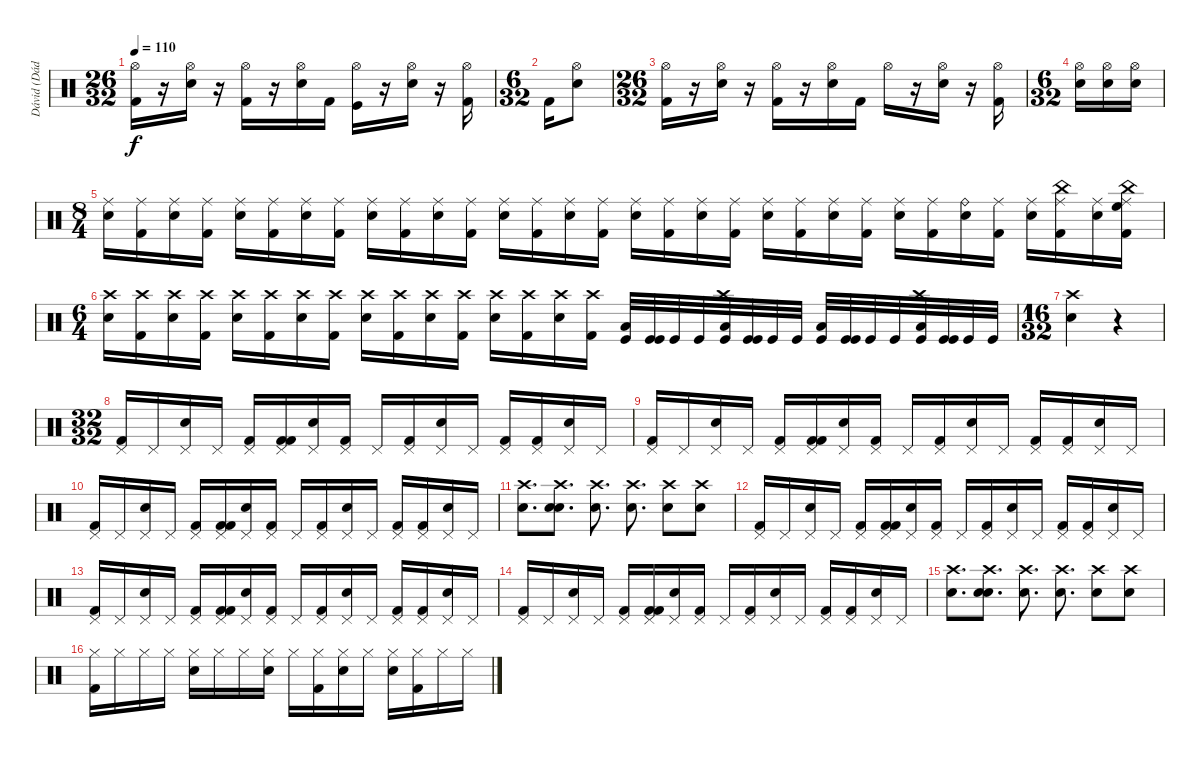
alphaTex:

\track ("Dávid (Dádi)" "Dávid (Dád") {instrument percussion}
\staff {score}
\articulation defaults
\ts (26 32)
\tempo 110
\clef neutral
\ks c
("Kick (hit) 2" "Hi-Hat (open)").16{dy f} r.16 ("Electric Snare (hit)" "Hi-Hat (open)").16 r.16 ("Kick (hit) 2" "Hi-Hat (open)").16 r.16 ("Electric Snare (hit)" "Hi-Hat (open)").16 "Kick (hit) 2".16 ("Hi-Hat (open)" "Kick (hit)").16 r.16 ("Electric Snare (hit)" "Hi-Hat (open)").16 r.16 ("Kick (hit) 2" "Hi-Hat (open)").16 |
\ts (6 32)
"Kick (hit) 2".16 ("Hi-Hat (open)" "Electric Snare (hit)").8 |
\ts (26 32)
("Kick (hit) 2" "Hi-Hat (open)").16 r.16 ("Electric Snare (hit)" "Hi-Hat (open)").16 r.16 ("Kick (hit) 2" "Hi-Hat (open)").16 r.16 ("Electric Snare (hit)" "Hi-Hat (open)").16 "Kick (hit) 2".16 "Hi-Hat (open)".16 r.16 ("Electric Snare (hit)" "Hi-Hat (open)").16 r.16 ("Kick (hit) 2" "Hi-Hat (open)").16 |
\ts (6 32)
("Electric Snare (hit)" "Hi-Hat (open)").16 ("Electric Snare (hit)" "Hi-Hat (open)").16 ("Hi-Hat (open)" "Electric Snare (hit)").16 |
\ts (8 4)
("Ride (middle)" "Electric Snare (hit)").16 ("Ride (middle)" "Kick (hit) 2").16 ("Ride (middle)" "Electric Snare (hit)").16 ("Ride (middle)" "Kick (hit) 2").16 ("Ride (middle)" "Electric Snare (hit)").16 ("Ride (middle)" "Kick (hit) 2").16 ("Ride (middle)" "Electric Snare (hit)").16 ("Ride (middle)" "Kick (hit) 2").16 ("Ride (middle)" "Electric Snare (hit)").16 ("Ride (middle)" "Kick (hit) 2").16 ("Ride (middle)" "Electric Snare (hit)").16 ("Ride (middle)" "Kick (hit) 2").16 ("Ride (middle)" "Electric Snare (hit)").16 ("Ride (middle)" "Kick (hit) 2").16 ("Ride (middle)" "Electric Snare (hit)").16 ("Ride (middle)" "Kick (hit) 2").16 ("Ride (middle)" "Electric Snare (hit)").16 ("Ride (middle)" "Kick (hit) 2").16 ("Ride (middle)" "Electric Snare (hit)").16 ("Ride (middle)" "Kick (hit) 2").16 ("Ride (middle)" "Electric Snare (hit)").16 ("Ride (middle)" "Kick (hit) 2").16 ("Ride (middle)" "Electric Snare (hit)").16 ("Ride (middle)" "Kick (hit) 2").16 ("Ride (middle)" "Electric Snare (hit)").16 ("Ride (middle)" "Kick (hit) 2").16 ("Electric Snare (hit)" "Ride (bell)").16 ("Kick (hit) 2" "Ride (middle)").16 ("Ride (middle)" "Electric Snare (hit)").16 ("Ride (middle)" "Kick (hit) 2" "China (hit)").16 ("Ride (middle)" "Electric Snare (hit)").16 ("Ride (middle)" "Kick (hit) 2" "High Floor Tom (hit)" "China (hit)").16 |
\ts (6 4)
("Electric Snare (hit)" "Crash high (hit)").16 ("Kick (hit) 2" "Crash high (hit)").16 ("Electric Snare (hit)" "Crash high (hit)").16 ("Kick (hit) 2" "Crash high (hit)").16 ("Electric Snare (hit)" "Crash high (hit)").16 ("Kick (hit) 2" "Crash high (hit)").16 ("Electric Snare (hit)" "Crash high (hit)").16 ("Kick (hit) 2" "Crash high (hit)").16 ("Electric Snare (hit)" "Crash high (hit)").16 ("Kick (hit) 2" "Crash high (hit)").16 ("Electric Snare (hit)" "Crash high (hit)").16 ("Kick (hit) 2" "Crash high (hit)").16 ("Electric Snare (hit)" "Crash high (hit)").16 ("Kick (hit) 2" "Crash high (hit)").16 ("Electric Snare (hit)" "Crash high (hit)").16 ("Kick (hit) 2" "Crash high (hit)").16 ("Kick (hit)" "Low Floor Tom (hit)").32 ("Kick (hit)" "Kick (hit)").32 "Kick (hit)".32 "Kick (hit)".32 ("Crash high (hit)" "Kick (hit)" "Low Floor Tom (hit)").32 ("Kick (hit)" "Kick (hit)").32 "Kick (hit)".32 "Kick (hit)".32 ("Kick (hit)" "Low Floor Tom (hit)").32 ("Kick (hit)" "Kick (hit)").32 "Kick (hit)".32 "Kick (hit)".32 ("Crash high (hit)" "Kick (hit)" "Low Floor Tom (hit)").32 ("Kick (hit)" "Kick (hit)").32 "Kick (hit)".32 "Kick (hit)".32 |
\ts (16 32)
("Crash high (hit)" "Electric Snare (hit)").4 r.4 |
\ts (32 32)
("Pedal Hi-Hat (hit)" "Kick (hit) 2").16 "Pedal Hi-Hat (hit)".16 ("Pedal Hi-Hat (hit)" "Electric Snare (hit)").16 "Pedal Hi-Hat (hit)".16 ("Pedal Hi-Hat (hit)" "Kick (hit) 2").16 ("Pedal Hi-Hat (hit)" "Kick (hit) 2" "Kick (hit) 2").16 ("Pedal Hi-Hat (hit)" "Electric Snare (hit)").16 ("Pedal Hi-Hat (hit)" "Kick (hit) 2").16 "Pedal Hi-Hat (hit)".16 ("Pedal Hi-Hat (hit)" "Kick (hit) 2").16 ("Pedal Hi-Hat (hit)" "Electric Snare (hit)").16 "Pedal Hi-Hat (hit)".16 ("Pedal Hi-Hat (hit)" "Kick (hit) 2").16 ("Pedal Hi-Hat (hit)" "Kick (hit) 2").16 ("Pedal Hi-Hat (hit)" "Electric Snare (hit)").16 "Pedal Hi-Hat (hit)".16 |
("Pedal Hi-Hat (hit)" "Kick (hit) 2").16 "Pedal Hi-Hat (hit)".16 ("Pedal Hi-Hat (hit)" "Electric Snare (hit)").16 "Pedal Hi-Hat (hit)".16 ("Pedal Hi-Hat (hit)" "Kick (hit) 2").16 ("Pedal Hi-Hat (hit)" "Kick (hit) 2" "Kick (hit) 2").16 ("Pedal Hi-Hat (hit)" "Electric Snare (hit)").16 ("Pedal Hi-Hat (hit)" "Kick (hit) 2").16 "Pedal Hi-Hat (hit)".16 ("Pedal Hi-Hat (hit)" "Kick (hit) 2").16 ("Pedal Hi-Hat (hit)" "Electric Snare (hit)").16 "Pedal Hi-Hat (hit)".16 ("Pedal Hi-Hat (hit)" "Kick (hit) 2").16 ("Pedal Hi-Hat (hit)" "Kick (hit) 2").16 ("Pedal Hi-Hat (hit)" "Electric Snare (hit)").16 "Pedal Hi-Hat (hit)".16 |
("Pedal Hi-Hat (hit)" "Kick (hit) 2").16 "Pedal Hi-Hat (hit)".16 ("Pedal Hi-Hat (hit)" "Electric Snare (hit)").16 "Pedal Hi-Hat (hit)".16 ("Pedal Hi-Hat (hit)" "Kick (hit) 2").16 ("Pedal Hi-Hat (hit)" "Kick (hit) 2" "Kick (hit) 2").16 ("Pedal Hi-Hat (hit)" "Electric Snare (hit)").16 ("Pedal Hi-Hat (hit)" "Kick (hit) 2").16 "Pedal Hi-Hat (hit)".16 ("Pedal Hi-Hat (hit)" "Kick (hit) 2").16 ("Pedal Hi-Hat (hit)" "Electric Snare (hit)").16 "Pedal Hi-Hat (hit)".16 ("Pedal Hi-Hat (hit)" "Kick (hit) 2").16 ("Pedal Hi-Hat (hit)" "Kick (hit) 2").16 ("Pedal Hi-Hat (hit)" "Electric Snare (hit)").16 "Pedal Hi-Hat (hit)".16 |
("Crash high (hit)" "Electric Snare (hit)").8{d} ("Crash high (hit)" "Electric Snare (hit)" "Electric Snare (hit)").8{d} ("Crash high (hit)" "Electric Snare (hit)").8{d} ("Crash high (hit)" "Electric Snare (hit)").8{d} ("Snare (hit) 2" "Crash high (hit)").8 ("Snare (hit) 2" "Crash high (hit)").8 |
("Pedal Hi-Hat (hit)" "Kick (hit) 2").16 "Pedal Hi-Hat (hit)".16 ("Pedal Hi-Hat (hit)" "Electric Snare (hit)").16 "Pedal Hi-Hat (hit)".16 ("Pedal Hi-Hat (hit)" "Kick (hit) 2").16 ("Pedal Hi-Hat (hit)" "Kick (hit) 2" "Kick (hit) 2").16 ("Pedal Hi-Hat (hit)" "Electric Snare (hit)").16 ("Pedal Hi-Hat (hit)" "Kick (hit) 2").16 "Pedal Hi-Hat (hit)".16 ("Pedal Hi-Hat (hit)" "Kick (hit) 2").16 ("Pedal Hi-Hat (hit)" "Electric Snare (hit)").16 "Pedal Hi-Hat (hit)".16 ("Pedal Hi-Hat (hit)" "Kick (hit) 2").16 ("Pedal Hi-Hat (hit)" "Kick (hit) 2").16 ("Pedal Hi-Hat (hit)" "Electric Snare (hit)").16 "Pedal Hi-Hat (hit)".16 |
("Pedal Hi-Hat (hit)" "Kick (hit) 2").16 "Pedal Hi-Hat (hit)".16 ("Pedal Hi-Hat (hit)" "Electric Snare (hit)").16 "Pedal Hi-Hat (hit)".16 ("Pedal Hi-Hat (hit)" "Kick (hit) 2").16 ("Pedal Hi-Hat (hit)" "Kick (hit) 2" "Kick (hit) 2").16 ("Pedal Hi-Hat (hit)" "Electric Snare (hit)").16 ("Pedal Hi-Hat (hit)" "Kick (hit) 2").16 "Pedal Hi-Hat (hit)".16 ("Pedal Hi-Hat (hit)" "Kick (hit) 2").16 ("Pedal Hi-Hat (hit)" "Electric Snare (hit)").16 "Pedal Hi-Hat (hit)".16 ("Pedal Hi-Hat (hit)" "Kick (hit) 2").16 ("Pedal Hi-Hat (hit)" "Kick (hit) 2").16 ("Pedal Hi-Hat (hit)" "Electric Snare (hit)").16 "Pedal Hi-Hat (hit)".16 |
("Pedal Hi-Hat (hit)" "Kick (hit) 2").16 "Pedal Hi-Hat (hit)".16 ("Pedal Hi-Hat (hit)" "Electric Snare (hit)").16 "Pedal Hi-Hat (hit)".16 ("Pedal Hi-Hat (hit)" "Kick (hit) 2").16 ("Pedal Hi-Hat (hit)" "Kick (hit) 2" "Kick (hit) 2").16 ("Pedal Hi-Hat (hit)" "Electric Snare (hit)").16 ("Pedal Hi-Hat (hit)" "Kick (hit) 2").16 "Pedal Hi-Hat (hit)".16 ("Pedal Hi-Hat (hit)" "Kick (hit) 2").16 ("Pedal Hi-Hat (hit)" "Electric Snare (hit)").16 "Pedal Hi-Hat (hit)".16 ("Pedal Hi-Hat (hit)" "Kick (hit) 2").16 ("Pedal Hi-Hat (hit)" "Kick (hit) 2").16 ("Pedal Hi-Hat (hit)" "Electric Snare (hit)").16 "Pedal Hi-Hat (hit)".16 |
("Crash high (hit)" "Electric Snare (hit)").8{d} ("Crash high (hit)" "Electric Snare (hit)" "Electric Snare (hit)").8{d} ("Crash high (hit)" "Electric Snare (hit)").8{d} ("Crash high (hit)" "Electric Snare (hit)").8{d} ("Snare (hit) 2" "Crash high (hit)").8 ("Snare (hit) 2" "Crash high (hit)").8 |
("Hi-Hat (closed)" "Kick (hit) 2").16 "Hi-Hat (closed)".16 "Hi-Hat (closed)".16 "Hi-Hat (closed)".16 ("Hi-Hat (closed)" "Electric Snare (hit)").16 "Hi-Hat (closed)".16 "Hi-Hat (closed)".16 ("Hi-Hat (closed)" "Electric Snare (hit)").16 "Hi-Hat (closed)".16 ("Hi-Hat (closed)" "Kick (hit) 2").16 ("Hi-Hat (closed)" "Electric Snare (hit)").16 "Hi-Hat (closed)".16 ("Hi-Hat (closed)" "Electric Snare (hit)").16 ("Hi-Hat (closed)" "Kick (hit) 2").16 "Hi-Hat (closed)".16 "Hi-Hat (closed)".16
